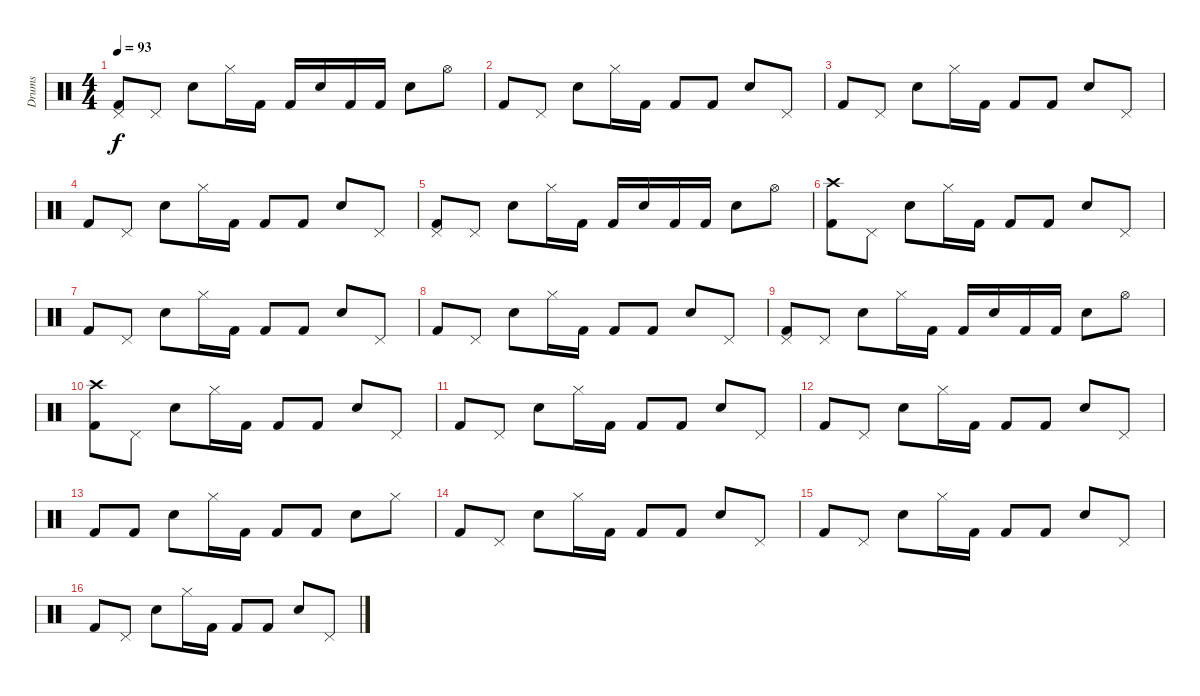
\track ("Drums" "Drums") {instrument percussion}
\staff {score}
\articulation defaults
\ts (4 4)
\tempo 93
\clef neutral
\ks c
("Pedal Hi-Hat (hit)" "Kick (hit) 2").8{dy f} "Pedal Hi-Hat (hit)".8 "Electric Snare (hit)".8 "Hi-Hat (closed)".16 "Kick (hit) 2".16 "Kick (hit) 2".16 "Electric Snare (hit)".16 "Kick (hit) 2".16 "Kick (hit) 2".16 "Electric Snare (hit)".8 "Hi-Hat (open)".8 |
"Kick (hit) 2".8 "Pedal Hi-Hat (hit)".8 "Electric Snare (hit)".8 "Hi-Hat (closed)".16 "Kick (hit) 2".16 "Kick (hit) 2".8 "Kick (hit) 2".8 "Electric Snare (hit)".8 "Pedal Hi-Hat (hit)".8 |
"Kick (hit) 2".8 "Pedal Hi-Hat (hit)".8 "Electric Snare (hit)".8 "Hi-Hat (closed)".16 "Kick (hit) 2".16 "Kick (hit) 2".8 "Kick (hit) 2".8 "Electric Snare (hit)".8 "Pedal Hi-Hat (hit)".8 |
"Kick (hit) 2".8 "Pedal Hi-Hat (hit)".8 "Electric Snare (hit)".8 "Hi-Hat (closed)".16 "Kick (hit) 2".16 "Kick (hit) 2".8 "Kick (hit) 2".8 "Electric Snare (hit)".8 "Pedal Hi-Hat (hit)".8 |
("Pedal Hi-Hat (hit)" "Kick (hit) 2").8 "Pedal Hi-Hat (hit)".8 "Electric Snare (hit)".8 "Hi-Hat (closed)".16 "Kick (hit) 2".16 "Kick (hit) 2".16 "Electric Snare (hit)".16 "Kick (hit) 2".16 "Kick (hit) 2".16 "Electric Snare (hit)".8 "Hi-Hat (open)".8 |
("Crash high (hit)" "Kick (hit) 2").8 "Pedal Hi-Hat (hit)".8 "Electric Snare (hit)".8 "Hi-Hat (closed)".16 "Kick (hit) 2".16 "Kick (hit) 2".8 "Kick (hit) 2".8 "Electric Snare (hit)".8 "Pedal Hi-Hat (hit)".8 |
"Kick (hit) 2".8 "Pedal Hi-Hat (hit)".8 "Electric Snare (hit)".8 "Hi-Hat (closed)".16 "Kick (hit) 2".16 "Kick (hit) 2".8 "Kick (hit) 2".8 "Electric Snare (hit)".8 "Pedal Hi-Hat (hit)".8 |
"Kick (hit) 2".8 "Pedal Hi-Hat (hit)".8 "Electric Snare (hit)".8 "Hi-Hat (closed)".16 "Kick (hit) 2".16 "Kick (hit) 2".8 "Kick (hit) 2".8 "Electric Snare (hit)".8 "Pedal Hi-Hat (hit)".8 |
("Pedal Hi-Hat (hit)" "Kick (hit) 2").8 "Pedal Hi-Hat (hit)".8 "Electric Snare (hit)".8 "Hi-Hat (closed)".16 "Kick (hit) 2".16 "Kick (hit) 2".16 "Electric Snare (hit)".16 "Kick (hit) 2".16 "Kick (hit) 2".16 "Electric Snare (hit)".8 "Hi-Hat (open)".8 |
("Crash high (hit)" "Kick (hit) 2").8 "Pedal Hi-Hat (hit)".8 "Electric Snare (hit)".8 "Hi-Hat (closed)".16 "Kick (hit) 2".16 "Kick (hit) 2".8 "Kick (hit) 2".8 "Electric Snare (hit)".8 "Pedal Hi-Hat (hit)".8 |
"Kick (hit) 2".8 "Pedal Hi-Hat (hit)".8 "Electric Snare (hit)".8 "Hi-Hat (closed)".16 "Kick (hit) 2".16 "Kick (hit) 2".8 "Kick (hit) 2".8 "Electric Snare (hit)".8 "Pedal Hi-Hat (hit)".8 |
"Kick (hit) 2".8 "Pedal Hi-Hat (hit)".8 "Electric Snare (hit)".8 "Hi-Hat (closed)".16 "Kick (hit) 2".16 "Kick (hit) 2".8 "Kick (hit) 2".8 "Electric Snare (hit)".8 "Pedal Hi-Hat (hit)".8 |
"Kick (hit) 2".8 "Kick (hit) 2".8 "Electric Snare (hit)".8 "Hi-Hat (closed)".16 "Kick (hit) 2".16 "Kick (hit) 2".8 "Kick (hit) 2".8 "Electric Snare (hit)".8 "Hi-Hat (closed)".8 |
"Kick (hit) 2".8 "Pedal Hi-Hat (hit)".8 "Electric Snare (hit)".8 "Hi-Hat (closed)".16 "Kick (hit) 2".16 "Kick (hit) 2".8 "Kick (hit) 2".8 "Electric Snare (hit)".8 "Pedal Hi-Hat (hit)".8 |
"Kick (hit) 2".8 "Pedal Hi-Hat (hit)".8 "Electric Snare (hit)".8 "Hi-Hat (closed)".16 "Kick (hit) 2".16 "Kick (hit) 2".8 "Kick (hit) 2".8 "Electric Snare (hit)".8 "Pedal Hi-Hat (hit)".8 |
"Kick (hit) 2".8 "Pedal Hi-Hat (hit)".8 "Electric Snare (hit)".8 "Hi-Hat (closed)".16 "Kick (hit) 2".16 "Kick (hit) 2".8 "Kick (hit) 2".8 "Electric Snare (hit)".8 "Pedal Hi-Hat (hit)".8
